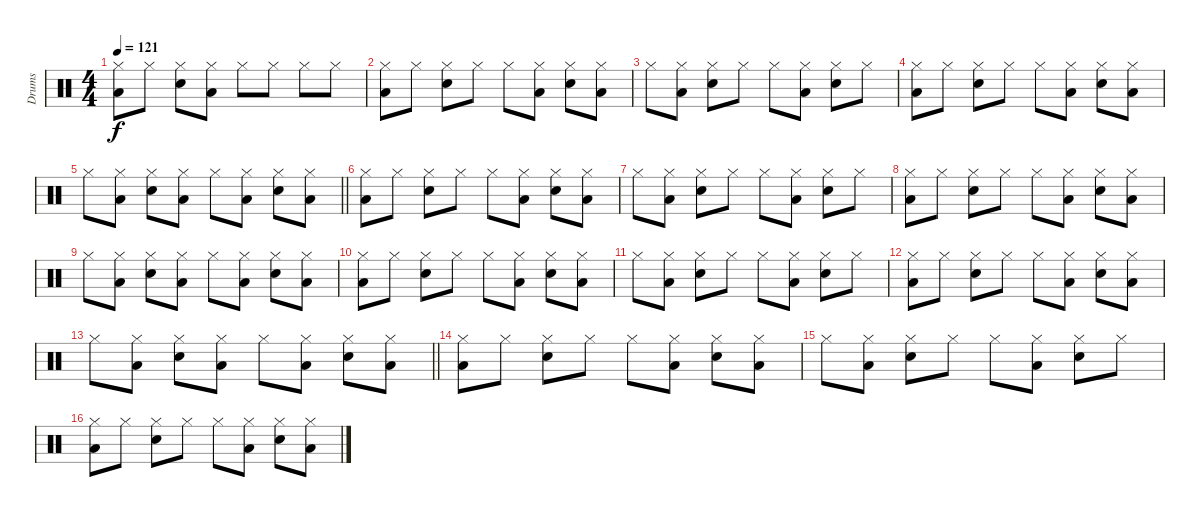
\track ("Drums" "Drums") {instrument percussion}
\staff {score}
\articulation defaults
\ts (4 4)
\tempo 121
\clef neutral
\ks c
("Hi-Hat (closed)" "Low Floor Tom (hit)").8{dy f} "Hi-Hat (closed)".8 ("Hi-Hat (closed)" "Electric Snare (hit)").8 ("Hi-Hat (closed)" "Low Floor Tom (hit)").8 "Hi-Hat (closed)".8 "Hi-Hat (closed)".8 "Hi-Hat (closed)".8 "Hi-Hat (closed)".8 |
("Hi-Hat (closed)" "Low Floor Tom (hit)").8 "Hi-Hat (closed)".8 ("Hi-Hat (closed)" "Electric Snare (hit)").8 "Hi-Hat (closed)".8 "Hi-Hat (closed)".8 ("Hi-Hat (closed)" "Low Floor Tom (hit)").8 ("Hi-Hat (closed)" "Electric Snare (hit)").8 ("Hi-Hat (closed)" "Low Floor Tom (hit)").8 |
"Hi-Hat (closed)".8 ("Hi-Hat (closed)" "Low Floor Tom (hit)").8 ("Hi-Hat (closed)" "Electric Snare (hit)").8 "Hi-Hat (closed)".8 "Hi-Hat (closed)".8 ("Hi-Hat (closed)" "Low Floor Tom (hit)").8 ("Hi-Hat (closed)" "Electric Snare (hit)").8 "Hi-Hat (closed)".8 |
("Hi-Hat (closed)" "Low Floor Tom (hit)").8 "Hi-Hat (closed)".8 ("Hi-Hat (closed)" "Electric Snare (hit)").8 "Hi-Hat (closed)".8 "Hi-Hat (closed)".8 ("Hi-Hat (closed)" "Low Floor Tom (hit)").8 ("Hi-Hat (closed)" "Electric Snare (hit)").8 ("Hi-Hat (closed)" "Low Floor Tom (hit)").8 |
\barLineRight lightlight "Hi-Hat (closed)".8
("Hi-Hat (closed)" "Low Floor Tom (hit)").8 ("Hi-Hat (closed)" "Electric Snare (hit)").8 ("Hi-Hat (closed)" "Low Floor Tom (hit)").8 "Hi-Hat (closed)".8 ("Hi-Hat (closed)" "Low Floor Tom (hit)").8 ("Hi-Hat (closed)" "Electric Snare (hit)").8 ("Hi-Hat (closed)" "Low Floor Tom (hit)").8 |
("Hi-Hat (closed)" "Low Floor Tom (hit)").8 "Hi-Hat (closed)".8 ("Hi-Hat (closed)" "Electric Snare (hit)").8 "Hi-Hat (closed)".8 "Hi-Hat (closed)".8 ("Hi-Hat (closed)" "Low Floor Tom (hit)").8 ("Hi-Hat (closed)" "Electric Snare (hit)").8 ("Hi-Hat (closed)" "Low Floor Tom (hit)").8 |
"Hi-Hat (closed)".8 ("Hi-Hat (closed)" "Low Floor Tom (hit)").8 ("Hi-Hat (closed)" "Electric Snare (hit)").8 "Hi-Hat (closed)".8 "Hi-Hat (closed)".8 ("Hi-Hat (closed)" "Low Floor Tom (hit)").8 ("Hi-Hat (closed)" "Electric Snare (hit)").8 "Hi-Hat (closed)".8 |
("Hi-Hat (closed)" "Low Floor Tom (hit)").8 "Hi-Hat (closed)".8 ("Hi-Hat (closed)" "Electric Snare (hit)").8 "Hi-Hat (closed)".8 "Hi-Hat (closed)".8 ("Hi-Hat (closed)" "Low Floor Tom (hit)").8 ("Hi-Hat (closed)" "Electric Snare (hit)").8 ("Hi-Hat (closed)" "Low Floor Tom (hit)").8 |
"Hi-Hat (closed)".8 ("Hi-Hat (closed)" "Low Floor Tom (hit)").8 ("Hi-Hat (closed)" "Electric Snare (hit)").8 ("Hi-Hat (closed)" "Low Floor Tom (hit)").8 "Hi-Hat (closed)".8 ("Hi-Hat (closed)" "Low Floor Tom (hit)").8 ("Hi-Hat (closed)" "Electric Snare (hit)").8 ("Hi-Hat (closed)" "Low Floor Tom (hit)").8 |
("Hi-Hat (closed)" "Low Floor Tom (hit)").8 "Hi-Hat (closed)".8 ("Hi-Hat (closed)" "Electric Snare (hit)").8 "Hi-Hat (closed)".8 "Hi-Hat (closed)".8 ("Hi-Hat (closed)" "Low Floor Tom (hit)").8 ("Hi-Hat (closed)" "Electric Snare (hit)").8 ("Hi-Hat (closed)" "Low Floor Tom (hit)").8 |
"Hi-Hat (closed)".8 ("Hi-Hat (closed)" "Low Floor Tom (hit)").8 ("Hi-Hat (closed)" "Electric Snare (hit)").8 "Hi-Hat (closed)".8 "Hi-Hat (closed)".8 ("Hi-Hat (closed)" "Low Floor Tom (hit)").8 ("Hi-Hat (closed)" "Electric Snare (hit)").8 "Hi-Hat (closed)".8 |
("Hi-Hat (closed)" "Low Floor Tom (hit)").8 "Hi-Hat (closed)".8 ("Hi-Hat (closed)" "Electric Snare (hit)").8 "Hi-Hat (closed)".8 "Hi-Hat (closed)".8 ("Hi-Hat (closed)" "Low Floor Tom (hit)").8 ("Hi-Hat (closed)" "Electric Snare (hit)").8 ("Hi-Hat (closed)" "Low Floor Tom (hit)").8 |
\barLineRight lightlight "Hi-Hat (closed)".8
("Hi-Hat (closed)" "Low Floor Tom (hit)").8 ("Hi-Hat (closed)" "Electric Snare (hit)").8 ("Hi-Hat (closed)" "Low Floor Tom (hit)").8 "Hi-Hat (closed)".8 ("Hi-Hat (closed)" "Low Floor Tom (hit)").8 ("Hi-Hat (closed)" "Electric Snare (hit)").8 ("Hi-Hat (closed)" "Low Floor Tom (hit)").8 |
("Hi-Hat (closed)" "Low Floor Tom (hit)").8 "Hi-Hat (closed)".8 ("Hi-Hat (closed)" "Electric Snare (hit)").8 "Hi-Hat (closed)".8 "Hi-Hat (closed)".8 ("Hi-Hat (closed)" "Low Floor Tom (hit)").8 ("Hi-Hat (closed)" "Electric Snare (hit)").8 ("Hi-Hat (closed)" "Low Floor Tom (hit)").8 |
"Hi-Hat (closed)".8 ("Hi-Hat (closed)" "Low Floor Tom (hit)").8 ("Hi-Hat (closed)" "Electric Snare (hit)").8 "Hi-Hat (closed)".8 "Hi-Hat (closed)".8 ("Hi-Hat (closed)" "Low Floor Tom (hit)").8 ("Hi-Hat (closed)" "Electric Snare (hit)").8 "Hi-Hat (closed)".8 |
("Hi-Hat (closed)" "Low Floor Tom (hit)").8 "Hi-Hat (closed)".8 ("Hi-Hat (closed)" "Electric Snare (hit)").8 "Hi-Hat (closed)".8 "Hi-Hat (closed)".8 ("Hi-Hat (closed)" "Low Floor Tom (hit)").8 ("Hi-Hat (closed)" "Electric Snare (hit)").8 ("Hi-Hat (closed)" "Low Floor Tom (hit)").8
